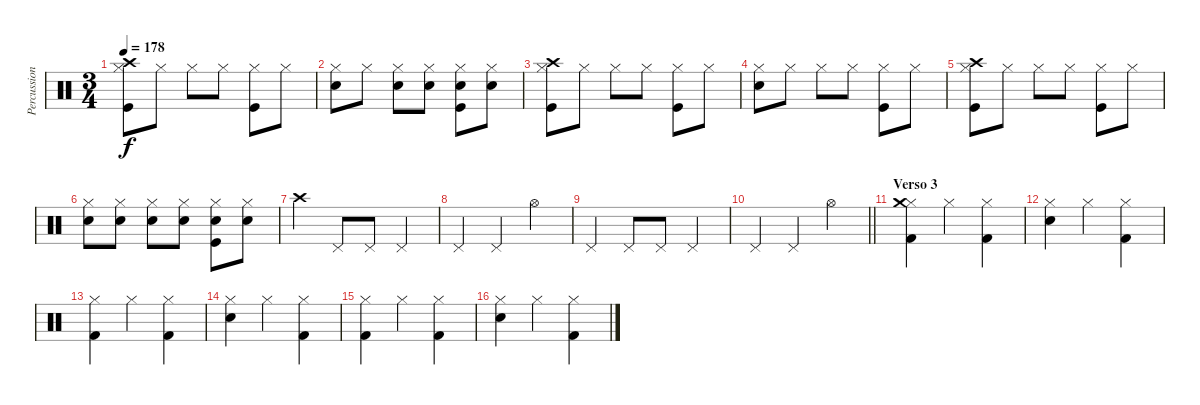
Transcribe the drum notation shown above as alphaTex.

\track ("Percussion" "Percussion") {instrument percussion}
\staff {score}
\articulation defaults
\ts (3 4)
\tempo 178
\clef neutral
\ks c
("Hi-Hat (closed)" "Crash high (hit)" "Kick (hit)").8{dy f} "Hi-Hat (closed)".8 "Hi-Hat (closed)".8 "Hi-Hat (closed)".8 ("Hi-Hat (closed)" "Kick (hit)").8 "Hi-Hat (closed)".8 |
("Hi-Hat (closed)" "Snare (hit) 2").8 "Hi-Hat (closed)".8 ("Hi-Hat (closed)" "Snare (hit) 2").8 ("Hi-Hat (closed)" "Snare (hit) 2").8 ("Hi-Hat (closed)" "Snare (hit) 2" "Kick (hit)").8 ("Hi-Hat (closed)" "Snare (hit) 2").8 |
("Hi-Hat (closed)" "Crash high (hit)" "Kick (hit)").8 "Hi-Hat (closed)".8 "Hi-Hat (closed)".8 "Hi-Hat (closed)".8 ("Hi-Hat (closed)" "Kick (hit)").8 "Hi-Hat (closed)".8 |
("Hi-Hat (closed)" "Snare (hit) 2").8 "Hi-Hat (closed)".8 "Hi-Hat (closed)".8 "Hi-Hat (closed)".8 ("Hi-Hat (closed)" "Kick (hit)").8 "Hi-Hat (closed)".8 |
("Hi-Hat (closed)" "Crash high (hit)" "Kick (hit)").8 "Hi-Hat (closed)".8 "Hi-Hat (closed)".8 "Hi-Hat (closed)".8 ("Hi-Hat (closed)" "Kick (hit)").8 "Hi-Hat (closed)".8 |
("Hi-Hat (closed)" "Snare (hit) 2").8 ("Hi-Hat (closed)" "Snare (hit) 2").8 ("Hi-Hat (closed)" "Snare (hit) 2").8 ("Hi-Hat (closed)" "Snare (hit) 2").8 ("Hi-Hat (closed)" "Snare (hit) 2" "Kick (hit)").8 ("Hi-Hat (closed)" "Snare (hit) 2").8 |
"Crash high (hit)".4 "Pedal Hi-Hat (hit)".8 "Pedal Hi-Hat (hit)".8 "Pedal Hi-Hat (hit)".4 |
"Pedal Hi-Hat (hit)".4 "Pedal Hi-Hat (hit)".4 "Hi-Hat (open)".4 |
"Pedal Hi-Hat (hit)".4 "Pedal Hi-Hat (hit)".8 "Pedal Hi-Hat (hit)".8 "Pedal Hi-Hat (hit)".4 |
\barLineRight lightlight "Pedal Hi-Hat (hit)".4 "Pedal Hi-Hat (hit)".4 "Hi-Hat (open)".4
|
\section ("" "Verso 3")
("Hi-Hat (closed)" "Crash medium (hit)" "Kick (hit) 2").4 "Hi-Hat (closed)".4 ("Hi-Hat (closed)" "Kick (hit) 2").4 |
("Hi-Hat (closed)" "Snare (hit) 2").4 "Hi-Hat (closed)".4 ("Hi-Hat (closed)" "Kick (hit) 2").4 |
("Hi-Hat (closed)" "Kick (hit) 2").4 "Hi-Hat (closed)".4 ("Hi-Hat (closed)" "Kick (hit) 2").4 |
("Hi-Hat (closed)" "Snare (hit) 2").4 "Hi-Hat (closed)".4 ("Hi-Hat (closed)" "Kick (hit) 2").4 |
("Hi-Hat (closed)" "Kick (hit) 2").4 "Hi-Hat (closed)".4 ("Hi-Hat (closed)" "Kick (hit) 2").4 |
("Hi-Hat (closed)" "Snare (hit) 2").4 "Hi-Hat (closed)".4 ("Hi-Hat (closed)" "Kick (hit) 2").4
